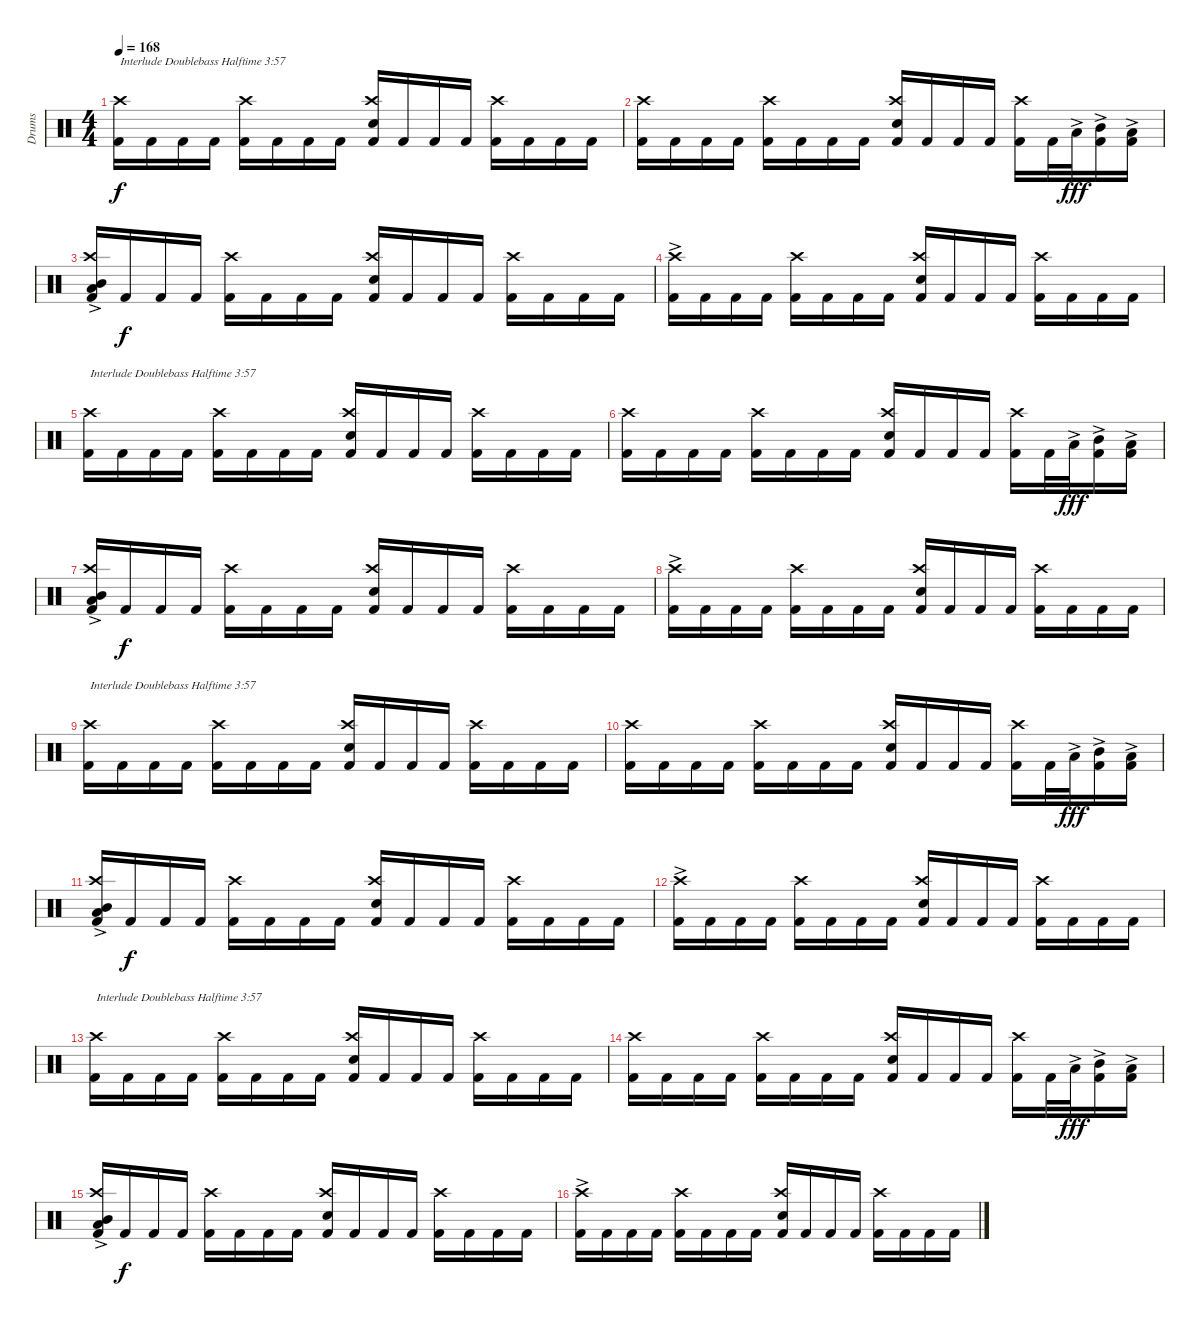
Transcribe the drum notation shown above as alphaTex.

\track ("Drums" "Drums") {instrument percussion}
\staff {score}
\articulation defaults
\ts (4 4)
\tempo 168
\clef neutral
\ks c
("Kick (hit) 2" "Crash high (hit)").16{txt "Interlude Doublebass Halftime 3:57" dy f} "Kick (hit) 2".16 "Kick (hit) 2".16 "Kick (hit) 2".16 ("Kick (hit) 2" "Crash high (hit)").16 "Kick (hit) 2".16 "Kick (hit) 2".16 "Kick (hit) 2".16 ("Kick (hit) 2" "Electric Snare (hit)" "Crash high (hit)").16 "Kick (hit) 2".16 "Kick (hit) 2".16 "Kick (hit) 2".16 ("Kick (hit) 2" "Crash high (hit)").16 "Kick (hit) 2".16 "Kick (hit) 2".16 "Kick (hit) 2".16 |
("Kick (hit) 2" "Crash high (hit)").16 "Kick (hit) 2".16 "Kick (hit) 2".16 "Kick (hit) 2".16 ("Kick (hit) 2" "Crash high (hit)").16 "Kick (hit) 2".16 "Kick (hit) 2".16 "Kick (hit) 2".16 ("Kick (hit) 2" "Electric Snare (hit)" "Crash high (hit)").16 "Kick (hit) 2".16 "Kick (hit) 2".16 "Kick (hit) 2".16 ("Kick (hit) 2" "Crash high (hit)").16 "Kick (hit) 2".32 "Low Tom (hit)"{ac}.32{dy fff} ("Kick (hit) 2" "Mid Tom (hit)"{ac}).16 ("Kick (hit) 2" "Low Tom (hit)"{ac}).16 |
("Kick (hit) 2" "Low Tom (hit)"{ac} "Mid Tom (hit)"{ac} "Crash high (hit)"{ac}).16 "Kick (hit) 2".16{dy f} "Kick (hit) 2".16 "Kick (hit) 2".16 ("Kick (hit) 2" "Crash high (hit)").16 "Kick (hit) 2".16 "Kick (hit) 2".16 "Kick (hit) 2".16 ("Kick (hit) 2" "Electric Snare (hit)" "Crash high (hit)").16 "Kick (hit) 2".16 "Kick (hit) 2".16 "Kick (hit) 2".16 ("Kick (hit) 2" "Crash high (hit)").16 "Kick (hit) 2".16 "Kick (hit) 2".16 "Kick (hit) 2".16 |
("Kick (hit) 2" "Crash high (hit)"{ac}).16 "Kick (hit) 2".16 "Kick (hit) 2".16 "Kick (hit) 2".16 ("Kick (hit) 2" "Crash high (hit)").16 "Kick (hit) 2".16 "Kick (hit) 2".16 "Kick (hit) 2".16 ("Kick (hit) 2" "Electric Snare (hit)" "Crash high (hit)").16 "Kick (hit) 2".16 "Kick (hit) 2".16 "Kick (hit) 2".16 ("Kick (hit) 2" "Crash high (hit)").16 "Kick (hit) 2".16 "Kick (hit) 2".16 "Kick (hit) 2".16 |
("Kick (hit) 2" "Crash high (hit)").16{txt "Interlude Doublebass Halftime 3:57"} "Kick (hit) 2".16 "Kick (hit) 2".16 "Kick (hit) 2".16 ("Kick (hit) 2" "Crash high (hit)").16 "Kick (hit) 2".16 "Kick (hit) 2".16 "Kick (hit) 2".16 ("Kick (hit) 2" "Electric Snare (hit)" "Crash high (hit)").16 "Kick (hit) 2".16 "Kick (hit) 2".16 "Kick (hit) 2".16 ("Kick (hit) 2" "Crash high (hit)").16 "Kick (hit) 2".16 "Kick (hit) 2".16 "Kick (hit) 2".16 |
("Kick (hit) 2" "Crash high (hit)").16 "Kick (hit) 2".16 "Kick (hit) 2".16 "Kick (hit) 2".16 ("Kick (hit) 2" "Crash high (hit)").16 "Kick (hit) 2".16 "Kick (hit) 2".16 "Kick (hit) 2".16 ("Kick (hit) 2" "Electric Snare (hit)" "Crash high (hit)").16 "Kick (hit) 2".16 "Kick (hit) 2".16 "Kick (hit) 2".16 ("Kick (hit) 2" "Crash high (hit)").16 "Kick (hit) 2".32 "Low Tom (hit)"{ac}.32{dy fff} ("Kick (hit) 2" "Mid Tom (hit)"{ac}).16 ("Kick (hit) 2" "Low Tom (hit)"{ac}).16 |
("Kick (hit) 2" "Low Tom (hit)"{ac} "Mid Tom (hit)"{ac} "Crash high (hit)"{ac}).16 "Kick (hit) 2".16{dy f} "Kick (hit) 2".16 "Kick (hit) 2".16 ("Kick (hit) 2" "Crash high (hit)").16 "Kick (hit) 2".16 "Kick (hit) 2".16 "Kick (hit) 2".16 ("Kick (hit) 2" "Electric Snare (hit)" "Crash high (hit)").16 "Kick (hit) 2".16 "Kick (hit) 2".16 "Kick (hit) 2".16 ("Kick (hit) 2" "Crash high (hit)").16 "Kick (hit) 2".16 "Kick (hit) 2".16 "Kick (hit) 2".16 |
("Kick (hit) 2" "Crash high (hit)"{ac}).16 "Kick (hit) 2".16 "Kick (hit) 2".16 "Kick (hit) 2".16 ("Kick (hit) 2" "Crash high (hit)").16 "Kick (hit) 2".16 "Kick (hit) 2".16 "Kick (hit) 2".16 ("Kick (hit) 2" "Electric Snare (hit)" "Crash high (hit)").16 "Kick (hit) 2".16 "Kick (hit) 2".16 "Kick (hit) 2".16 ("Kick (hit) 2" "Crash high (hit)").16 "Kick (hit) 2".16 "Kick (hit) 2".16 "Kick (hit) 2".16 |
("Kick (hit) 2" "Crash high (hit)").16{txt "Interlude Doublebass Halftime 3:57"} "Kick (hit) 2".16 "Kick (hit) 2".16 "Kick (hit) 2".16 ("Kick (hit) 2" "Crash high (hit)").16 "Kick (hit) 2".16 "Kick (hit) 2".16 "Kick (hit) 2".16 ("Kick (hit) 2" "Electric Snare (hit)" "Crash high (hit)").16 "Kick (hit) 2".16 "Kick (hit) 2".16 "Kick (hit) 2".16 ("Kick (hit) 2" "Crash high (hit)").16 "Kick (hit) 2".16 "Kick (hit) 2".16 "Kick (hit) 2".16 |
("Kick (hit) 2" "Crash high (hit)").16 "Kick (hit) 2".16 "Kick (hit) 2".16 "Kick (hit) 2".16 ("Kick (hit) 2" "Crash high (hit)").16 "Kick (hit) 2".16 "Kick (hit) 2".16 "Kick (hit) 2".16 ("Kick (hit) 2" "Electric Snare (hit)" "Crash high (hit)").16 "Kick (hit) 2".16 "Kick (hit) 2".16 "Kick (hit) 2".16 ("Kick (hit) 2" "Crash high (hit)").16 "Kick (hit) 2".32 "Low Tom (hit)"{ac}.32{dy fff} ("Kick (hit) 2" "Mid Tom (hit)"{ac}).16 ("Kick (hit) 2" "Low Tom (hit)"{ac}).16 |
("Kick (hit) 2" "Low Tom (hit)"{ac} "Mid Tom (hit)"{ac} "Crash high (hit)"{ac}).16 "Kick (hit) 2".16{dy f} "Kick (hit) 2".16 "Kick (hit) 2".16 ("Kick (hit) 2" "Crash high (hit)").16 "Kick (hit) 2".16 "Kick (hit) 2".16 "Kick (hit) 2".16 ("Kick (hit) 2" "Electric Snare (hit)" "Crash high (hit)").16 "Kick (hit) 2".16 "Kick (hit) 2".16 "Kick (hit) 2".16 ("Kick (hit) 2" "Crash high (hit)").16 "Kick (hit) 2".16 "Kick (hit) 2".16 "Kick (hit) 2".16 |
("Kick (hit) 2" "Crash high (hit)"{ac}).16 "Kick (hit) 2".16 "Kick (hit) 2".16 "Kick (hit) 2".16 ("Kick (hit) 2" "Crash high (hit)").16 "Kick (hit) 2".16 "Kick (hit) 2".16 "Kick (hit) 2".16 ("Kick (hit) 2" "Electric Snare (hit)" "Crash high (hit)").16 "Kick (hit) 2".16 "Kick (hit) 2".16 "Kick (hit) 2".16 ("Kick (hit) 2" "Crash high (hit)").16 "Kick (hit) 2".16 "Kick (hit) 2".16 "Kick (hit) 2".16 |
("Kick (hit) 2" "Crash high (hit)").16{txt "Interlude Doublebass Halftime 3:57"} "Kick (hit) 2".16 "Kick (hit) 2".16 "Kick (hit) 2".16 ("Kick (hit) 2" "Crash high (hit)").16 "Kick (hit) 2".16 "Kick (hit) 2".16 "Kick (hit) 2".16 ("Kick (hit) 2" "Electric Snare (hit)" "Crash high (hit)").16 "Kick (hit) 2".16 "Kick (hit) 2".16 "Kick (hit) 2".16 ("Kick (hit) 2" "Crash high (hit)").16 "Kick (hit) 2".16 "Kick (hit) 2".16 "Kick (hit) 2".16 |
("Kick (hit) 2" "Crash high (hit)").16 "Kick (hit) 2".16 "Kick (hit) 2".16 "Kick (hit) 2".16 ("Kick (hit) 2" "Crash high (hit)").16 "Kick (hit) 2".16 "Kick (hit) 2".16 "Kick (hit) 2".16 ("Kick (hit) 2" "Electric Snare (hit)" "Crash high (hit)").16 "Kick (hit) 2".16 "Kick (hit) 2".16 "Kick (hit) 2".16 ("Kick (hit) 2" "Crash high (hit)").16 "Kick (hit) 2".32 "Low Tom (hit)"{ac}.32{dy fff} ("Kick (hit) 2" "Mid Tom (hit)"{ac}).16 ("Kick (hit) 2" "Low Tom (hit)"{ac}).16 |
("Kick (hit) 2" "Low Tom (hit)"{ac} "Mid Tom (hit)"{ac} "Crash high (hit)"{ac}).16 "Kick (hit) 2".16{dy f} "Kick (hit) 2".16 "Kick (hit) 2".16 ("Kick (hit) 2" "Crash high (hit)").16 "Kick (hit) 2".16 "Kick (hit) 2".16 "Kick (hit) 2".16 ("Kick (hit) 2" "Electric Snare (hit)" "Crash high (hit)").16 "Kick (hit) 2".16 "Kick (hit) 2".16 "Kick (hit) 2".16 ("Kick (hit) 2" "Crash high (hit)").16 "Kick (hit) 2".16 "Kick (hit) 2".16 "Kick (hit) 2".16 |
("Kick (hit) 2" "Crash high (hit)"{ac}).16 "Kick (hit) 2".16 "Kick (hit) 2".16 "Kick (hit) 2".16 ("Kick (hit) 2" "Crash high (hit)").16 "Kick (hit) 2".16 "Kick (hit) 2".16 "Kick (hit) 2".16 ("Kick (hit) 2" "Electric Snare (hit)" "Crash high (hit)").16 "Kick (hit) 2".16 "Kick (hit) 2".16 "Kick (hit) 2".16 ("Kick (hit) 2" "Crash high (hit)").16 "Kick (hit) 2".16 "Kick (hit) 2".16 "Kick (hit) 2".16
